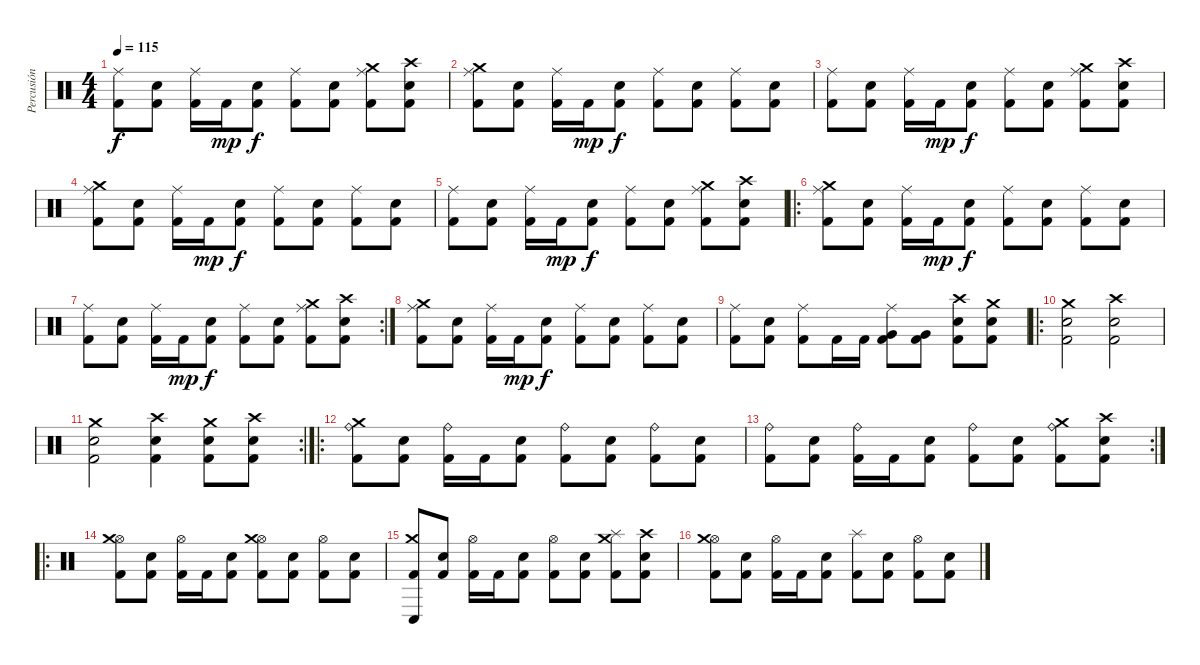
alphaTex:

\track ("Percusión" "Percusión") {instrument percussion}
\staff {score}
\articulation defaults
\ts (4 4)
\tempo 115
\clef neutral
\ks c
("Ride (middle)" "Kick (hit) 2").8{dy f} ("Snare (hit) 2" "Kick (hit) 2").8 ("Ride (middle)" "Kick (hit) 2").16 "Kick (hit) 2".16{dy mp} ("Snare (hit) 2" "Kick (hit) 2").8{dy f} ("Ride (middle)" "Kick (hit) 2").8 ("Snare (hit) 2" "Kick (hit) 2").8 ("Crash medium (hit)" "Ride (middle)" "Kick (hit) 2").8 ("Crash high (hit)" "Snare (hit) 2" "Kick (hit) 2").8 |
("Ride (middle)" "Crash medium (hit)" "Kick (hit) 2").8 ("Snare (hit) 2" "Kick (hit) 2").8 ("Ride (middle)" "Kick (hit) 2").16 "Kick (hit) 2".16{dy mp} ("Snare (hit) 2" "Kick (hit) 2").8{dy f} ("Ride (middle)" "Kick (hit) 2").8 ("Snare (hit) 2" "Kick (hit) 2").8 ("Ride (middle)" "Kick (hit) 2").8 ("Snare (hit) 2" "Kick (hit) 2").8 |
("Ride (middle)" "Kick (hit) 2").8 ("Snare (hit) 2" "Kick (hit) 2").8 ("Ride (middle)" "Kick (hit) 2").16 "Kick (hit) 2".16{dy mp} ("Snare (hit) 2" "Kick (hit) 2").8{dy f} ("Ride (middle)" "Kick (hit) 2").8 ("Snare (hit) 2" "Kick (hit) 2").8 ("Crash medium (hit)" "Ride (middle)" "Kick (hit) 2").8 ("Crash high (hit)" "Snare (hit) 2" "Kick (hit) 2").8 |
("Ride (middle)" "Crash medium (hit)" "Kick (hit) 2").8 ("Snare (hit) 2" "Kick (hit) 2").8 ("Ride (middle)" "Kick (hit) 2").16 "Kick (hit) 2".16{dy mp} ("Snare (hit) 2" "Kick (hit) 2").8{dy f} ("Ride (middle)" "Kick (hit) 2").8 ("Snare (hit) 2" "Kick (hit) 2").8 ("Ride (middle)" "Kick (hit) 2").8 ("Snare (hit) 2" "Kick (hit) 2").8 |
("Ride (middle)" "Kick (hit) 2").8 ("Snare (hit) 2" "Kick (hit) 2").8 ("Ride (middle)" "Kick (hit) 2").16 "Kick (hit) 2".16{dy mp} ("Snare (hit) 2" "Kick (hit) 2").8{dy f} ("Ride (middle)" "Kick (hit) 2").8 ("Snare (hit) 2" "Kick (hit) 2").8 ("Crash medium (hit)" "Ride (middle)" "Kick (hit) 2").8 ("Crash high (hit)" "Snare (hit) 2" "Kick (hit) 2").8 |
\ro
("Ride (middle)" "Crash medium (hit)" "Kick (hit) 2").8 ("Snare (hit) 2" "Kick (hit) 2").8 ("Ride (middle)" "Kick (hit) 2").16 "Kick (hit) 2".16{dy mp} ("Snare (hit) 2" "Kick (hit) 2").8{dy f} ("Ride (middle)" "Kick (hit) 2").8 ("Snare (hit) 2" "Kick (hit) 2").8 ("Ride (middle)" "Kick (hit) 2").8 ("Snare (hit) 2" "Kick (hit) 2").8 |
\rc 2
("Ride (middle)" "Kick (hit) 2").8 ("Snare (hit) 2" "Kick (hit) 2").8 ("Ride (middle)" "Kick (hit) 2").16 "Kick (hit) 2".16{dy mp} ("Snare (hit) 2" "Kick (hit) 2").8{dy f} ("Ride (middle)" "Kick (hit) 2").8 ("Snare (hit) 2" "Kick (hit) 2").8 ("Crash medium (hit)" "Ride (middle)" "Kick (hit) 2").8 ("Crash high (hit)" "Snare (hit) 2" "Kick (hit) 2").8 |
("Ride (middle)" "Crash medium (hit)" "Kick (hit) 2").8 ("Snare (hit) 2" "Kick (hit) 2").8 ("Ride (middle)" "Kick (hit) 2").16 "Kick (hit) 2".16{dy mp} ("Snare (hit) 2" "Kick (hit) 2").8{dy f} ("Ride (middle)" "Kick (hit) 2").8 ("Snare (hit) 2" "Kick (hit) 2").8 ("Ride (middle)" "Kick (hit) 2").8 ("Snare (hit) 2" "Kick (hit) 2").8 |
("Ride (middle)" "Kick (hit) 2").8 ("Snare (hit) 2" "Kick (hit) 2").8 ("Ride (middle)" "Kick (hit) 2").8 "Kick (hit) 2".16 "Kick (hit) 2".16 ("Ride (middle)" "Very Low Tom (hit)" "Kick (hit) 2").8 ("Very Low Tom (hit)" "Kick (hit) 2").8 ("Crash high (hit)" "Snare (hit) 2" "Kick (hit) 2").8 ("Crash medium (hit)" "Snare (hit) 2" "Kick (hit) 2").8 |
\ro
("Snare (hit) 2" "Crash medium (hit)" "Kick (hit) 2").2 ("Snare (hit) 2" "Crash high (hit)" "Kick (hit) 2").2 |
\rc 2
("Snare (hit) 2" "Crash medium (hit)" "Kick (hit) 2").2 ("Snare (hit) 2" "Crash high (hit)" "Kick (hit) 2").4 ("Crash medium (hit)" "Snare (hit) 2" "Kick (hit) 2").8 ("Crash high (hit)" "Snare (hit) 2" "Kick (hit) 2").8 |
\ro
("Ride (bell)" "Crash medium (hit)" "Kick (hit) 2").8 ("Snare (hit) 2" "Kick (hit) 2").8 ("Ride (bell)" "Kick (hit) 2").16 "Kick (hit) 2".16 ("Snare (hit) 2" "Kick (hit) 2").8 ("Ride (bell)" "Kick (hit) 2").8 ("Snare (hit) 2" "Kick (hit) 2").8 ("Ride (bell)" "Kick (hit) 2").8 ("Snare (hit) 2" "Kick (hit) 2").8 |
\rc 2
("Ride (bell)" "Kick (hit) 2").8 ("Snare (hit) 2" "Kick (hit) 2").8 ("Ride (bell)" "Kick (hit) 2").16 "Kick (hit) 2".16 ("Snare (hit) 2" "Kick (hit) 2").8 ("Ride (bell)" "Kick (hit) 2").8 ("Snare (hit) 2" "Kick (hit) 2").8 ("Crash medium (hit)" "Ride (bell)" "Kick (hit) 2").8 ("Crash high (hit)" "Snare (hit) 2" "Kick (hit) 2").8 |
\ro
("Hi-Hat (open)" "Crash medium (hit)" "Kick (hit) 2").8 ("Snare (hit) 2" "Kick (hit) 2").8 ("Hi-Hat (open)" "Kick (hit) 2").16 "Kick (hit) 2".16 ("Snare (hit) 2" "Kick (hit) 2").8 ("Hi-Hat (open)" "Crash medium (hit)" "Kick (hit) 2").8 ("Snare (hit) 2" "Kick (hit) 2").8 ("Hi-Hat (open)" "Kick (hit) 2").8 ("Snare (hit) 2" "Kick (hit) 2").8 |
("Conga low (hit)" "Crash medium (hit)" "Kick (hit) 2").8 ("Snare (hit) 2" "Kick (hit) 2").8 ("Hi-Hat (open)" "Kick (hit) 2").16 "Kick (hit) 2".16 ("Snare (hit) 2" "Kick (hit) 2").8 ("Hi-Hat (open)" "Kick (hit) 2").8 ("Snare (hit) 2" "Kick (hit) 2").8 ("Crash medium (hit)" "Splash (hit)" "Kick (hit) 2").8 ("Crash high (hit)" "Snare (hit) 2" "Kick (hit) 2").8 |
("Hi-Hat (open)" "Crash medium (hit)" "Kick (hit) 2").8 ("Snare (hit) 2" "Kick (hit) 2").8 ("Hi-Hat (open)" "Kick (hit) 2").16 "Kick (hit) 2".16 ("Snare (hit) 2" "Kick (hit) 2").8 ("Splash (hit)" "Kick (hit) 2").8 ("Snare (hit) 2" "Kick (hit) 2").8 ("Hi-Hat (open)" "Kick (hit) 2").8 ("Snare (hit) 2" "Kick (hit) 2").8
